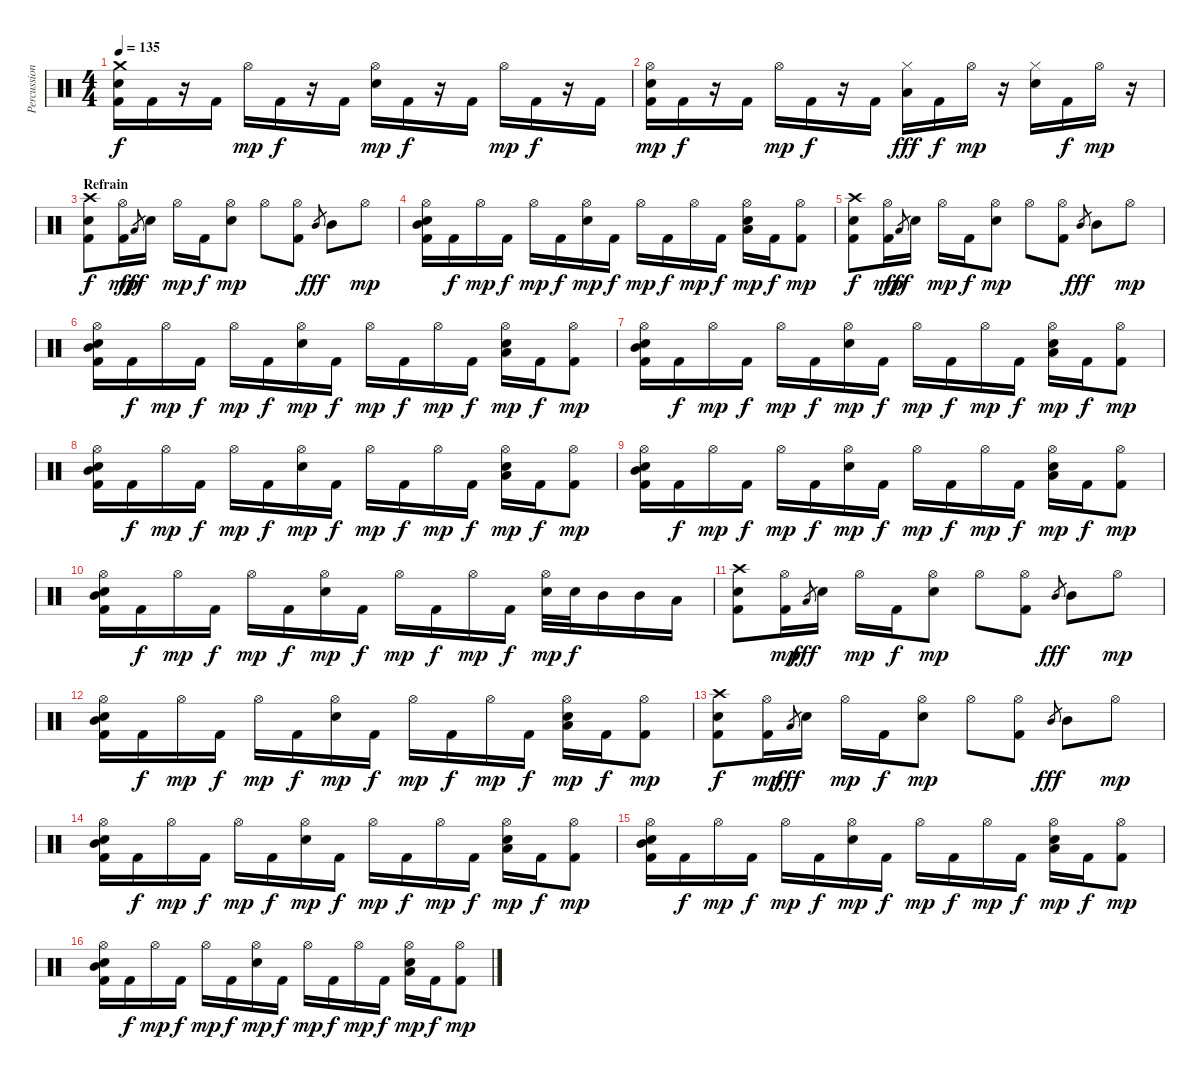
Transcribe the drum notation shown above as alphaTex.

\track ("Percussions" "Percussion") {instrument percussion}
\staff {score}
\articulation defaults
\ts (4 4)
\tempo 135
\clef neutral
\ks c
("Crash medium (hit)" "Electric Snare (hit)" "Kick (hit) 2").16{dy f} "Kick (hit) 2".16 r.16 "Kick (hit) 2".16 "Hi-Hat (open)".16{dy mp} "Kick (hit) 2".16{dy f} r.16 "Kick (hit) 2".16 ("Hi-Hat (open)" "Electric Snare (hit)").16{dy mp} "Kick (hit) 2".16{dy f} r.16 "Kick (hit) 2".16 "Hi-Hat (open)".16{dy mp} "Kick (hit) 2".16{dy f} r.16 "Kick (hit) 2".16 |
("Hi-Hat (open)" "Electric Snare (hit)" "Kick (hit) 2").16{dy mp} "Kick (hit) 2".16{dy f} r.16 "Kick (hit) 2".16 "Hi-Hat (open)".16{dy mp} "Kick (hit) 2".16{dy f} r.16 "Kick (hit) 2".16 ("Hi-Hat (closed)" "Low Tom (hit)").16{dy fff} "Kick (hit) 2".16{dy f} "Hi-Hat (open)".16{dy mp} r.16 ("Hi-Hat (closed)" "Electric Snare (hit)").16 "Kick (hit) 2".16{dy f} "Hi-Hat (open)".16{dy mp} r.16 |
\section ("" "Refrain")
("Crash high (hit)" "Electric Snare (hit)" "Kick (hit) 2").8{dy f} ("Hi-Hat (open)" "Kick (hit) 2").16{dy mp} "Low Tom (hit)".8{gr dy fff} "Electric Snare (hit)".16 "Hi-Hat (open)".16{dy mp} "Kick (hit) 2".16{dy f} ("Hi-Hat (open)" "Electric Snare (hit)").8{dy mp} "Hi-Hat (open)".8 ("Hi-Hat (open)" "Kick (hit) 2").8 "Mid Tom (hit)".8{gr dy fff} "Mid Tom (hit)".8 "Hi-Hat (open)".8{dy mp} |
("Hi-Hat (open)" "Electric Snare (hit)" "Mid Tom (hit)" "Kick (hit) 2").16 "Kick (hit) 2".16{dy f} "Hi-Hat (open)".16{dy mp} "Kick (hit) 2".16{dy f} "Hi-Hat (open)".16{dy mp} "Kick (hit) 2".16{dy f} ("Hi-Hat (open)" "Electric Snare (hit)").16{dy mp} "Kick (hit) 2".16{dy f} "Hi-Hat (open)".16{dy mp} "Kick (hit) 2".16{dy f} "Hi-Hat (open)".16{dy mp} "Kick (hit) 2".16{dy f} ("Hi-Hat (open)" "Electric Snare (hit)" "Low Tom (hit)").16{dy mp} "Kick (hit) 2".16{dy f} ("Hi-Hat (open)" "Kick (hit) 2").8{dy mp} |
("Crash high (hit)" "Electric Snare (hit)" "Kick (hit) 2").8{dy f} ("Hi-Hat (open)" "Kick (hit) 2").16{dy mp} "Low Tom (hit)".8{gr dy fff} "Electric Snare (hit)".16 "Hi-Hat (open)".16{dy mp} "Kick (hit) 2".16{dy f} ("Hi-Hat (open)" "Electric Snare (hit)").8{dy mp} "Hi-Hat (open)".8 ("Hi-Hat (open)" "Kick (hit) 2").8 "Mid Tom (hit)".8{gr dy fff} "Mid Tom (hit)".8 "Hi-Hat (open)".8{dy mp} |
("Hi-Hat (open)" "Electric Snare (hit)" "Mid Tom (hit)" "Kick (hit) 2").16 "Kick (hit) 2".16{dy f} "Hi-Hat (open)".16{dy mp} "Kick (hit) 2".16{dy f} "Hi-Hat (open)".16{dy mp} "Kick (hit) 2".16{dy f} ("Hi-Hat (open)" "Electric Snare (hit)").16{dy mp} "Kick (hit) 2".16{dy f} "Hi-Hat (open)".16{dy mp} "Kick (hit) 2".16{dy f} "Hi-Hat (open)".16{dy mp} "Kick (hit) 2".16{dy f} ("Hi-Hat (open)" "Electric Snare (hit)" "Low Tom (hit)").16{dy mp} "Kick (hit) 2".16{dy f} ("Hi-Hat (open)" "Kick (hit) 2").8{dy mp} |
("Hi-Hat (open)" "Electric Snare (hit)" "Mid Tom (hit)" "Kick (hit) 2").16 "Kick (hit) 2".16{dy f} "Hi-Hat (open)".16{dy mp} "Kick (hit) 2".16{dy f} "Hi-Hat (open)".16{dy mp} "Kick (hit) 2".16{dy f} ("Hi-Hat (open)" "Electric Snare (hit)").16{dy mp} "Kick (hit) 2".16{dy f} "Hi-Hat (open)".16{dy mp} "Kick (hit) 2".16{dy f} "Hi-Hat (open)".16{dy mp} "Kick (hit) 2".16{dy f} ("Hi-Hat (open)" "Electric Snare (hit)" "Low Tom (hit)").16{dy mp} "Kick (hit) 2".16{dy f} ("Hi-Hat (open)" "Kick (hit) 2").8{dy mp} |
("Hi-Hat (open)" "Electric Snare (hit)" "Mid Tom (hit)" "Kick (hit) 2").16 "Kick (hit) 2".16{dy f} "Hi-Hat (open)".16{dy mp} "Kick (hit) 2".16{dy f} "Hi-Hat (open)".16{dy mp} "Kick (hit) 2".16{dy f} ("Hi-Hat (open)" "Electric Snare (hit)").16{dy mp} "Kick (hit) 2".16{dy f} "Hi-Hat (open)".16{dy mp} "Kick (hit) 2".16{dy f} "Hi-Hat (open)".16{dy mp} "Kick (hit) 2".16{dy f} ("Hi-Hat (open)" "Electric Snare (hit)" "Low Tom (hit)").16{dy mp} "Kick (hit) 2".16{dy f} ("Hi-Hat (open)" "Kick (hit) 2").8{dy mp} |
("Hi-Hat (open)" "Electric Snare (hit)" "Mid Tom (hit)" "Kick (hit) 2").16 "Kick (hit) 2".16{dy f} "Hi-Hat (open)".16{dy mp} "Kick (hit) 2".16{dy f} "Hi-Hat (open)".16{dy mp} "Kick (hit) 2".16{dy f} ("Hi-Hat (open)" "Electric Snare (hit)").16{dy mp} "Kick (hit) 2".16{dy f} "Hi-Hat (open)".16{dy mp} "Kick (hit) 2".16{dy f} "Hi-Hat (open)".16{dy mp} "Kick (hit) 2".16{dy f} ("Hi-Hat (open)" "Electric Snare (hit)" "Low Tom (hit)").16{dy mp} "Kick (hit) 2".16{dy f} ("Hi-Hat (open)" "Kick (hit) 2").8{dy mp} |
("Hi-Hat (open)" "Electric Snare (hit)" "Mid Tom (hit)" "Kick (hit) 2").16 "Kick (hit) 2".16{dy f} "Hi-Hat (open)".16{dy mp} "Kick (hit) 2".16{dy f} "Hi-Hat (open)".16{dy mp} "Kick (hit) 2".16{dy f} ("Hi-Hat (open)" "Electric Snare (hit)").16{dy mp} "Kick (hit) 2".16{dy f} "Hi-Hat (open)".16{dy mp} "Kick (hit) 2".16{dy f} "Hi-Hat (open)".16{dy mp} "Kick (hit) 2".16{dy f} ("Hi-Hat (open)" "Electric Snare (hit)").32{dy mp} "Electric Snare (hit)".32{dy f} "Mid Tom (hit)".16 "Mid Tom (hit)".16 "Low Tom (hit)".16 |
("Crash high (hit)" "Electric Snare (hit)" "Kick (hit) 2").8 ("Hi-Hat (open)" "Kick (hit) 2").16{dy mp} "Low Tom (hit)".8{gr dy fff} "Electric Snare (hit)".16 "Hi-Hat (open)".16{dy mp} "Kick (hit) 2".16{dy f} ("Hi-Hat (open)" "Electric Snare (hit)").8{dy mp} "Hi-Hat (open)".8 ("Hi-Hat (open)" "Kick (hit) 2").8 "Mid Tom (hit)".8{gr dy fff} "Mid Tom (hit)".8 "Hi-Hat (open)".8{dy mp} |
("Hi-Hat (open)" "Electric Snare (hit)" "Mid Tom (hit)" "Kick (hit) 2").16 "Kick (hit) 2".16{dy f} "Hi-Hat (open)".16{dy mp} "Kick (hit) 2".16{dy f} "Hi-Hat (open)".16{dy mp} "Kick (hit) 2".16{dy f} ("Hi-Hat (open)" "Electric Snare (hit)").16{dy mp} "Kick (hit) 2".16{dy f} "Hi-Hat (open)".16{dy mp} "Kick (hit) 2".16{dy f} "Hi-Hat (open)".16{dy mp} "Kick (hit) 2".16{dy f} ("Hi-Hat (open)" "Electric Snare (hit)" "Low Tom (hit)").16{dy mp} "Kick (hit) 2".16{dy f} ("Hi-Hat (open)" "Kick (hit) 2").8{dy mp} |
("Crash high (hit)" "Electric Snare (hit)" "Kick (hit) 2").8{dy f} ("Hi-Hat (open)" "Kick (hit) 2").16{dy mp} "Low Tom (hit)".8{gr dy fff} "Electric Snare (hit)".16 "Hi-Hat (open)".16{dy mp} "Kick (hit) 2".16{dy f} ("Hi-Hat (open)" "Electric Snare (hit)").8{dy mp} "Hi-Hat (open)".8 ("Hi-Hat (open)" "Kick (hit) 2").8 "Mid Tom (hit)".8{gr dy fff} "Mid Tom (hit)".8 "Hi-Hat (open)".8{dy mp} |
("Hi-Hat (open)" "Electric Snare (hit)" "Mid Tom (hit)" "Kick (hit) 2").16 "Kick (hit) 2".16{dy f} "Hi-Hat (open)".16{dy mp} "Kick (hit) 2".16{dy f} "Hi-Hat (open)".16{dy mp} "Kick (hit) 2".16{dy f} ("Hi-Hat (open)" "Electric Snare (hit)").16{dy mp} "Kick (hit) 2".16{dy f} "Hi-Hat (open)".16{dy mp} "Kick (hit) 2".16{dy f} "Hi-Hat (open)".16{dy mp} "Kick (hit) 2".16{dy f} ("Hi-Hat (open)" "Electric Snare (hit)" "Low Tom (hit)").16{dy mp} "Kick (hit) 2".16{dy f} ("Hi-Hat (open)" "Kick (hit) 2").8{dy mp} |
("Hi-Hat (open)" "Electric Snare (hit)" "Mid Tom (hit)" "Kick (hit) 2").16 "Kick (hit) 2".16{dy f} "Hi-Hat (open)".16{dy mp} "Kick (hit) 2".16{dy f} "Hi-Hat (open)".16{dy mp} "Kick (hit) 2".16{dy f} ("Hi-Hat (open)" "Electric Snare (hit)").16{dy mp} "Kick (hit) 2".16{dy f} "Hi-Hat (open)".16{dy mp} "Kick (hit) 2".16{dy f} "Hi-Hat (open)".16{dy mp} "Kick (hit) 2".16{dy f} ("Hi-Hat (open)" "Electric Snare (hit)" "Low Tom (hit)").16{dy mp} "Kick (hit) 2".16{dy f} ("Hi-Hat (open)" "Kick (hit) 2").8{dy mp} |
("Hi-Hat (open)" "Electric Snare (hit)" "Mid Tom (hit)" "Kick (hit) 2").16 "Kick (hit) 2".16{dy f} "Hi-Hat (open)".16{dy mp} "Kick (hit) 2".16{dy f} "Hi-Hat (open)".16{dy mp} "Kick (hit) 2".16{dy f} ("Hi-Hat (open)" "Electric Snare (hit)").16{dy mp} "Kick (hit) 2".16{dy f} "Hi-Hat (open)".16{dy mp} "Kick (hit) 2".16{dy f} "Hi-Hat (open)".16{dy mp} "Kick (hit) 2".16{dy f} ("Hi-Hat (open)" "Electric Snare (hit)" "Low Tom (hit)").16{dy mp} "Kick (hit) 2".16{dy f} ("Hi-Hat (open)" "Kick (hit) 2").8{dy mp}
